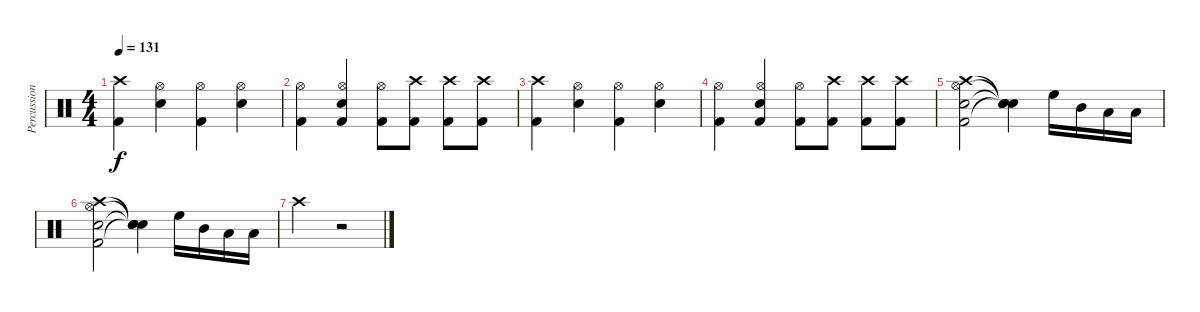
\track ("Percussion" "Percussion") {instrument percussion}
\staff {score}
\articulation defaults
\ts (4 4)
\tempo 131
\clef neutral
\ks c
("Crash high (hit)" "Kick (hit) 2").4{dy f} ("Hi-Hat (open)" "Snare (hit) 2").4 ("Hi-Hat (open)" "Kick (hit) 2").4 ("Hi-Hat (open)" "Snare (hit) 2").4 |
("Hi-Hat (open)" "Kick (hit) 2").4 ("Hi-Hat (open)" "Snare (hit) 2" "Kick (hit) 2").4 ("Hi-Hat (open)" "Kick (hit) 2").8 ("Crash high (hit)" "Kick (hit) 2").8 ("Crash high (hit)" "Kick (hit) 2").8 ("Crash high (hit)" "Kick (hit) 2").8 |
("Crash high (hit)" "Kick (hit) 2").4 ("Hi-Hat (open)" "Snare (hit) 2").4 ("Hi-Hat (open)" "Kick (hit) 2").4 ("Hi-Hat (open)" "Snare (hit) 2").4 |
("Hi-Hat (open)" "Kick (hit) 2").4 ("Hi-Hat (open)" "Snare (hit) 2" "Kick (hit) 2").4 ("Hi-Hat (open)" "Kick (hit) 2").8 ("Crash high (hit)" "Kick (hit) 2").8 ("Crash high (hit)" "Kick (hit) 2").8 ("Crash high (hit)" "Kick (hit) 2").8 |
("Crash high (hit)" "Hi-Hat (open)" "Snare (hit) 2" "Kick (hit) 2").2 ("Snare (hit)"{t} "Snare (hit)"{t} "Snare (hit)"{t} "Snare (hit)"{t}).4 "High Floor Tom (hit)".16 "Mid Tom (hit)".16 "Low Tom (hit)".16 "Low Floor Tom (hit)".16 |
("Crash high (hit)" "Hi-Hat (open)" "Snare (hit) 2" "Kick (hit) 2").2 ("Snare (hit)"{t} "Snare (hit)"{t} "Snare (hit)"{t} "Snare (hit)"{t}).4 "High Floor Tom (hit)".16 "Mid Tom (hit)".16 "Low Tom (hit)".16 "Low Floor Tom (hit)".16 |
"Crash high (hit)".2 r.2
